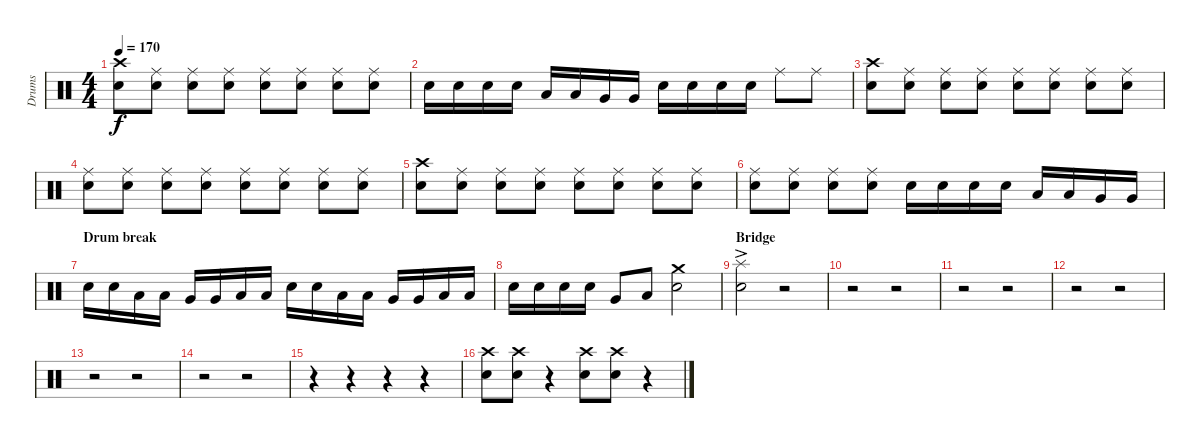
\track ("Drums" "Drums") {instrument percussion}
\staff {score}
\articulation defaults
\ts (4 4)
\tempo 170
\clef neutral
\ks c
("Crash high (hit)" "Electric Snare (hit)").8{dy f} ("Ride (middle)" "Electric Snare (hit)").8 ("Ride (middle)" "Electric Snare (hit)").8 ("Ride (middle)" "Electric Snare (hit)").8 ("Ride (middle)" "Electric Snare (hit)").8 ("Ride (middle)" "Electric Snare (hit)").8 ("Ride (middle)" "Electric Snare (hit)").8 ("Ride (middle)" "Electric Snare (hit)").8 |
"Electric Snare (hit)".16 "Electric Snare (hit)".16 "Electric Snare (hit)".16 "Electric Snare (hit)".16 "Low Tom (hit)".16 "Low Tom (hit)".16 "Very Low Tom (hit)".16 "Very Low Tom (hit)".16 "Electric Snare (hit)".16 "Electric Snare (hit)".16 "Electric Snare (hit)".16 "Electric Snare (hit)".16 "Ride (middle)".8 "Ride (middle)".8 |
("Crash high (hit)" "Electric Snare (hit)").8 ("Ride (middle)" "Electric Snare (hit)").8 ("Ride (middle)" "Electric Snare (hit)").8 ("Ride (middle)" "Electric Snare (hit)").8 ("Ride (middle)" "Electric Snare (hit)").8 ("Ride (middle)" "Electric Snare (hit)").8 ("Ride (middle)" "Electric Snare (hit)").8 ("Ride (middle)" "Electric Snare (hit)").8 |
("Ride (middle)" "Electric Snare (hit)").8 ("Ride (middle)" "Electric Snare (hit)").8 ("Ride (middle)" "Electric Snare (hit)").8 ("Ride (middle)" "Electric Snare (hit)").8 ("Ride (middle)" "Electric Snare (hit)").8 ("Ride (middle)" "Electric Snare (hit)").8 ("Ride (middle)" "Electric Snare (hit)").8 ("Ride (middle)" "Electric Snare (hit)").8 |
("Crash high (hit)" "Electric Snare (hit)").8 ("Ride (middle)" "Electric Snare (hit)").8 ("Ride (middle)" "Electric Snare (hit)").8 ("Ride (middle)" "Electric Snare (hit)").8 ("Ride (middle)" "Electric Snare (hit)").8 ("Ride (middle)" "Electric Snare (hit)").8 ("Ride (middle)" "Electric Snare (hit)").8 ("Ride (middle)" "Electric Snare (hit)").8 |
("Ride (middle)" "Electric Snare (hit)").8 ("Ride (middle)" "Electric Snare (hit)").8 ("Ride (middle)" "Electric Snare (hit)").8 ("Ride (middle)" "Electric Snare (hit)").8 "Electric Snare (hit)".16 "Electric Snare (hit)".16 "Electric Snare (hit)".16 "Electric Snare (hit)".16 "Low Tom (hit)".16 "Low Tom (hit)".16 "Very Low Tom (hit)".16 "Very Low Tom (hit)".16 |
\section ("" "Drum break")
"Electric Snare (hit)".16 "Electric Snare (hit)".16 "Low Tom (hit)".16 "Low Tom (hit)".16 "Very Low Tom (hit)".16 "Very Low Tom (hit)".16 "Low Floor Tom (hit)".16 "Low Floor Tom (hit)".16 "Electric Snare (hit)".16 "Electric Snare (hit)".16 "Low Tom (hit)".16 "Low Tom (hit)".16 "Very Low Tom (hit)".16 "Very Low Tom (hit)".16 "Low Floor Tom (hit)".16 "Low Floor Tom (hit)".16 |
"Electric Snare (hit)".16 "Electric Snare (hit)".16 "Electric Snare (hit)".16 "Electric Snare (hit)".16 "Very Low Tom (hit)".8 "Low Floor Tom (hit)".8 ("Crash medium (hit)" "Electric Snare (hit)").2 |
\section ("" "Bridge")
("Splash (hit)"{ac} "Electric Snare (hit)").2 r.2 |
r.2 r.2 |
r.2 r.2 |
r.2 r.2 |
r.2 r.2 |
r.2 r.2 |
r.4 r.4 r.4 r.4 |
("Crash high (hit)" "Electric Snare (hit)").8 ("Crash high (hit)" "Electric Snare (hit)").8 r.4 ("Crash high (hit)" "Electric Snare (hit)").8 ("Crash high (hit)" "Electric Snare (hit)").8 r.4
